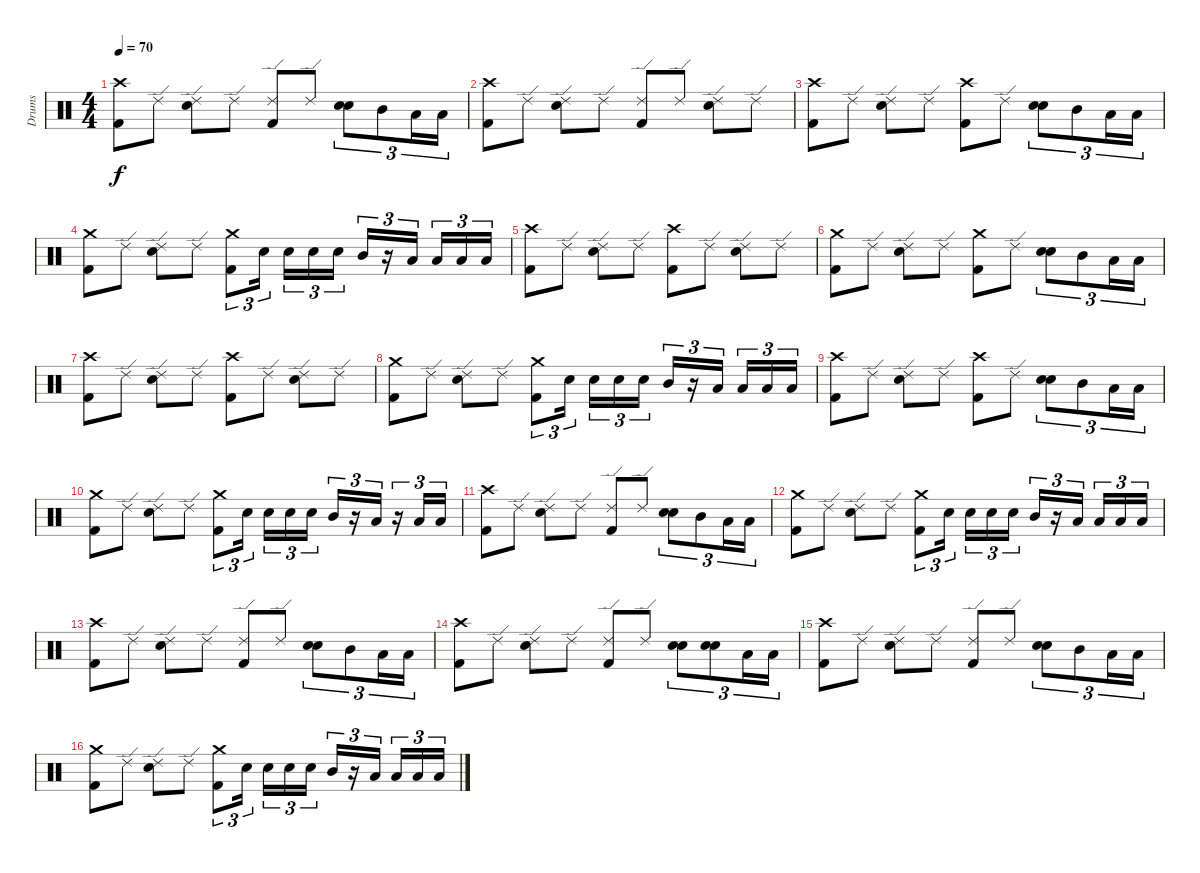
\track ("Drums" "Drums") {instrument percussion}
\staff {score}
\articulation defaults
\ts (4 4)
\tempo 70
\clef neutral
\ks c
("Crash high (hit)" "Kick (hit) 2").8{dy f} "Ride (edge) 2".8 ("Ride (edge) 2" "Electric Snare (hit)").8 "Ride (edge) 2".8 ("Ride (edge) 2" "Kick (hit) 2").8 "Ride (edge) 2".8 ("Electric Snare (hit)" "Electric Snare (hit)").8{tu (3 2) bu 60} "Mid Tom (hit)".8{tu (3 2)} "Low Tom (hit)".16{tu (3 2)} "Low Tom (hit)".16{tu (3 2)} |
("Crash high (hit)" "Kick (hit) 2").8 "Ride (edge) 2".8 ("Ride (edge) 2" "Electric Snare (hit)").8 "Ride (edge) 2".8 ("Ride (edge) 2" "Kick (hit) 2").8 "Ride (edge) 2".8 ("Ride (edge) 2" "Electric Snare (hit)").8 "Ride (edge) 2".8 |
("Crash high (hit)" "Kick (hit) 2").8 "Ride (edge) 2".8 ("Ride (edge) 2" "Electric Snare (hit)").8 "Ride (edge) 2".8 ("Crash high (hit)" "Kick (hit) 2").8 "Ride (edge) 2".8 ("Electric Snare (hit)" "Electric Snare (hit)").8{tu (3 2) bu 60} "Mid Tom (hit)".8{tu (3 2)} "Low Tom (hit)".16{tu (3 2)} "Low Tom (hit)".16{tu (3 2)} |
("Crash medium (hit)" "Kick (hit) 2").8 "Ride (edge) 2".8 ("Ride (edge) 2" "Electric Snare (hit)").8 "Ride (edge) 2".8 ("Crash medium (hit)" "Kick (hit) 2").8{tu (3 2)} "Electric Snare (hit)".16{tu (3 2) beam splitsecondary} "Electric Snare (hit)".16{tu (3 2)} "Electric Snare (hit)".16{tu (3 2)} "Electric Snare (hit)".16{tu (3 2)} "Mid Tom (hit)".16{tu (3 2)} r.16{tu (3 2)} "Low Tom (hit)".16{tu (3 2) beam splitsecondary} "Low Tom (hit)".16{tu (3 2)} "Low Tom (hit)".16{tu (3 2)} "Low Tom (hit)".16{tu (3 2)} |
("Crash high (hit)" "Kick (hit) 2").8 "Ride (edge) 2".8 ("Ride (edge) 2" "Electric Snare (hit)").8 "Ride (edge) 2".8 ("Crash high (hit)" "Kick (hit) 2").8 "Ride (edge) 2".8 ("Ride (edge) 2" "Electric Snare (hit)").8 "Ride (edge) 2".8 |
("Crash medium (hit)" "Kick (hit) 2").8 "Ride (edge) 2".8 ("Ride (edge) 2" "Electric Snare (hit)").8 "Ride (edge) 2".8 ("Crash medium (hit)" "Kick (hit) 2").8 "Ride (edge) 2".8 ("Electric Snare (hit)" "Electric Snare (hit)").8{tu (3 2) bu 60} "Mid Tom (hit)".8{tu (3 2)} "Low Tom (hit)".16{tu (3 2)} "Low Tom (hit)".16{tu (3 2)} |
("Crash high (hit)" "Kick (hit) 2").8 "Ride (edge) 2".8 ("Ride (edge) 2" "Electric Snare (hit)").8 "Ride (edge) 2".8 ("Crash high (hit)" "Kick (hit) 2").8 "Ride (edge) 2".8 ("Ride (edge) 2" "Electric Snare (hit)").8 "Ride (edge) 2".8 |
("Crash medium (hit)" "Kick (hit) 2").8 "Ride (edge) 2".8 ("Ride (edge) 2" "Electric Snare (hit)").8 "Ride (edge) 2".8 ("Crash medium (hit)" "Kick (hit) 2").8{tu (3 2)} "Electric Snare (hit)".16{tu (3 2) beam splitsecondary} "Electric Snare (hit)".16{tu (3 2)} "Electric Snare (hit)".16{tu (3 2)} "Electric Snare (hit)".16{tu (3 2)} "Mid Tom (hit)".16{tu (3 2)} r.16{tu (3 2)} "Low Tom (hit)".16{tu (3 2) beam splitsecondary} "Low Tom (hit)".16{tu (3 2)} "Low Tom (hit)".16{tu (3 2)} "Low Tom (hit)".16{tu (3 2)} |
("Crash high (hit)" "Kick (hit) 2").8 "Ride (edge) 2".8 ("Ride (edge) 2" "Electric Snare (hit)").8 "Ride (edge) 2".8 ("Crash high (hit)" "Kick (hit) 2").8 "Ride (edge) 2".8 ("Electric Snare (hit)" "Electric Snare (hit)").8{tu (3 2) bu 60} "Mid Tom (hit)".8{tu (3 2)} "Low Tom (hit)".16{tu (3 2)} "Low Tom (hit)".16{tu (3 2)} |
("Crash medium (hit)" "Kick (hit) 2").8 "Ride (edge) 2".8 ("Ride (edge) 2" "Electric Snare (hit)").8 "Ride (edge) 2".8 ("Crash medium (hit)" "Kick (hit) 2").8{tu (3 2)} "Electric Snare (hit)".16{tu (3 2) beam splitsecondary} "Electric Snare (hit)".16{tu (3 2)} "Electric Snare (hit)".16{tu (3 2)} "Electric Snare (hit)".16{tu (3 2)} "Mid Tom (hit)".16{tu (3 2)} r.16{tu (3 2)} "Low Tom (hit)".16{tu (3 2)} r.16{tu (3 2)} "Low Tom (hit)".16{tu (3 2)} "Low Tom (hit)".16{tu (3 2)} |
("Crash high (hit)" "Kick (hit) 2").8 "Ride (edge) 2".8 ("Ride (edge) 2" "Electric Snare (hit)").8 "Ride (edge) 2".8 ("Ride (edge) 2" "Kick (hit) 2").8 "Ride (edge) 2".8 ("Electric Snare (hit)" "Electric Snare (hit)").8{tu (3 2) bu 60} "Mid Tom (hit)".8{tu (3 2)} "Low Tom (hit)".16{tu (3 2)} "Low Tom (hit)".16{tu (3 2)} |
("Crash medium (hit)" "Kick (hit) 2").8 "Ride (edge) 2".8 ("Ride (edge) 2" "Electric Snare (hit)").8 "Ride (edge) 2".8 ("Crash medium (hit)" "Kick (hit) 2").8{tu (3 2)} "Electric Snare (hit)".16{tu (3 2) beam splitsecondary} "Electric Snare (hit)".16{tu (3 2)} "Electric Snare (hit)".16{tu (3 2)} "Electric Snare (hit)".16{tu (3 2)} "Mid Tom (hit)".16{tu (3 2)} r.16{tu (3 2)} "Low Tom (hit)".16{tu (3 2) beam splitsecondary} "Low Tom (hit)".16{tu (3 2)} "Low Tom (hit)".16{tu (3 2)} "Low Tom (hit)".16{tu (3 2)} |
("Crash high (hit)" "Kick (hit) 2").8 "Ride (edge) 2".8 ("Ride (edge) 2" "Electric Snare (hit)").8 "Ride (edge) 2".8 ("Ride (edge) 2" "Kick (hit) 2").8 "Ride (edge) 2".8 ("Electric Snare (hit)" "Electric Snare (hit)").8{tu (3 2) bu 60} "Mid Tom (hit)".8{tu (3 2)} "Low Tom (hit)".16{tu (3 2)} "Low Tom (hit)".16{tu (3 2)} |
("Crash high (hit)" "Kick (hit) 2").8 "Ride (edge) 2".8 ("Ride (edge) 2" "Electric Snare (hit)").8 "Ride (edge) 2".8 ("Ride (edge) 2" "Kick (hit) 2").8 "Ride (edge) 2".8 ("Electric Snare (hit)" "Electric Snare (hit)").8{tu (3 2) bu 60} ("Electric Snare (hit)" "Electric Snare (hit)").8{tu (3 2) bu 60} "Low Tom (hit)".16{tu (3 2)} "Low Tom (hit)".16{tu (3 2)} |
("Crash high (hit)" "Kick (hit) 2").8 "Ride (edge) 2".8 ("Ride (edge) 2" "Electric Snare (hit)").8 "Ride (edge) 2".8 ("Ride (edge) 2" "Kick (hit) 2").8 "Ride (edge) 2".8 ("Electric Snare (hit)" "Electric Snare (hit)").8{tu (3 2) bu 60} "Mid Tom (hit)".8{tu (3 2)} "Low Tom (hit)".16{tu (3 2)} "Low Tom (hit)".16{tu (3 2)} |
("Crash medium (hit)" "Kick (hit) 2").8 "Ride (edge) 2".8 ("Ride (edge) 2" "Electric Snare (hit)").8 "Ride (edge) 2".8 ("Crash medium (hit)" "Kick (hit) 2").8{tu (3 2)} "Electric Snare (hit)".16{tu (3 2) beam splitsecondary} "Electric Snare (hit)".16{tu (3 2)} "Electric Snare (hit)".16{tu (3 2)} "Electric Snare (hit)".16{tu (3 2)} "Mid Tom (hit)".16{tu (3 2)} r.16{tu (3 2)} "Low Tom (hit)".16{tu (3 2) beam splitsecondary} "Low Tom (hit)".16{tu (3 2)} "Low Tom (hit)".16{tu (3 2)} "Low Tom (hit)".16{tu (3 2)}
